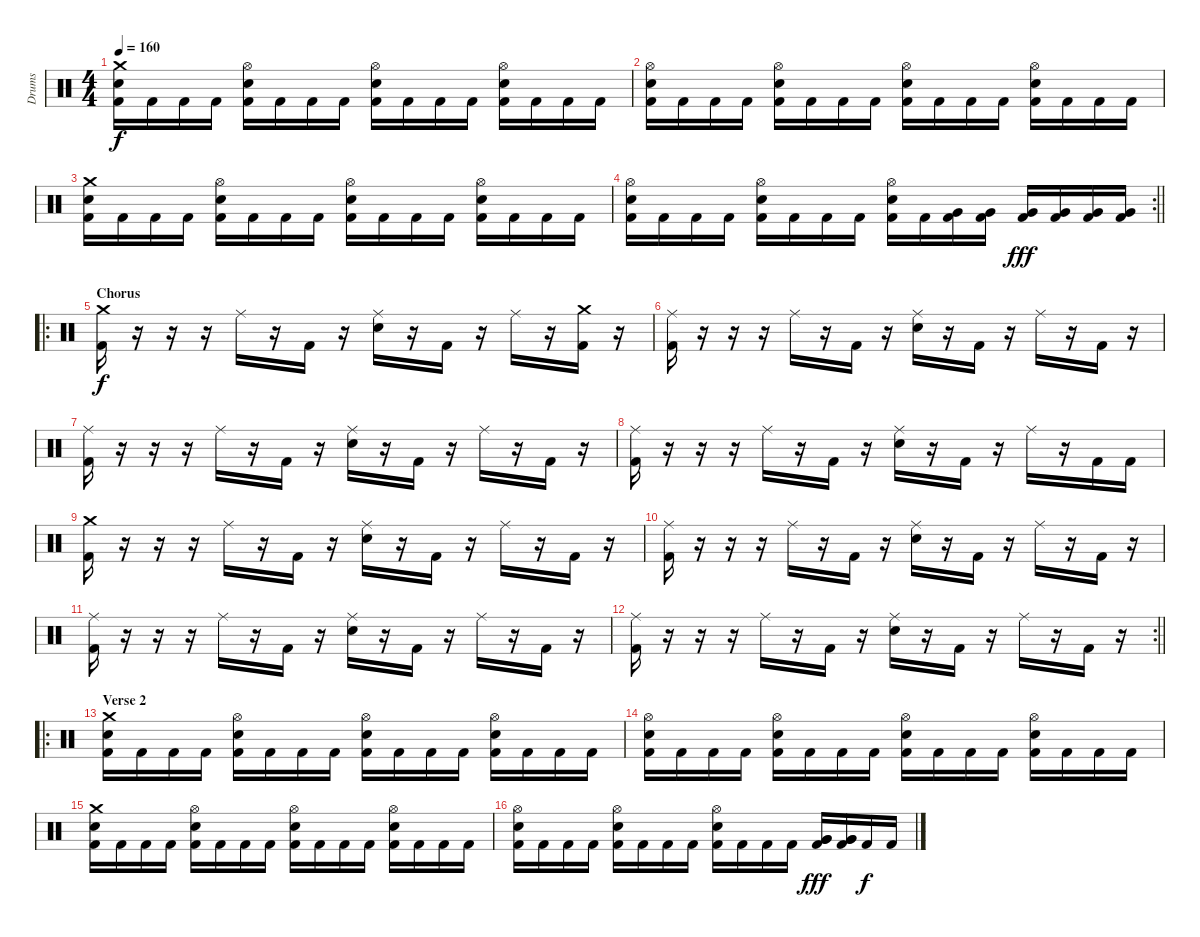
\track ("Drums" "Drums") {instrument percussion}
\staff {score}
\articulation defaults
\ts (4 4)
\tempo 160
\clef neutral
\ks c
("Crash medium (hit)" "Electric Snare (hit)" "Kick (hit) 2").16{dy f} "Kick (hit) 2".16 "Kick (hit) 2".16 "Kick (hit) 2".16 ("Hi-Hat (open)" "Electric Snare (hit)" "Kick (hit) 2").16 "Kick (hit) 2".16 "Kick (hit) 2".16 "Kick (hit) 2".16 ("Hi-Hat (open)" "Electric Snare (hit)" "Kick (hit) 2").16 "Kick (hit) 2".16 "Kick (hit) 2".16 "Kick (hit) 2".16 ("Hi-Hat (open)" "Electric Snare (hit)" "Kick (hit) 2").16 "Kick (hit) 2".16 "Kick (hit) 2".16 "Kick (hit) 2".16 |
("Hi-Hat (open)" "Electric Snare (hit)" "Kick (hit) 2").16 "Kick (hit) 2".16 "Kick (hit) 2".16 "Kick (hit) 2".16 ("Hi-Hat (open)" "Electric Snare (hit)" "Kick (hit) 2").16 "Kick (hit) 2".16 "Kick (hit) 2".16 "Kick (hit) 2".16 ("Hi-Hat (open)" "Electric Snare (hit)" "Kick (hit) 2").16 "Kick (hit) 2".16 "Kick (hit) 2".16 "Kick (hit) 2".16 ("Hi-Hat (open)" "Electric Snare (hit)" "Kick (hit) 2").16 "Kick (hit) 2".16 "Kick (hit) 2".16 "Kick (hit) 2".16 |
("Crash medium (hit)" "Electric Snare (hit)" "Kick (hit) 2").16 "Kick (hit) 2".16 "Kick (hit) 2".16 "Kick (hit) 2".16 ("Hi-Hat (open)" "Electric Snare (hit)" "Kick (hit) 2").16 "Kick (hit) 2".16 "Kick (hit) 2".16 "Kick (hit) 2".16 ("Hi-Hat (open)" "Electric Snare (hit)" "Kick (hit) 2").16 "Kick (hit) 2".16 "Kick (hit) 2".16 "Kick (hit) 2".16 ("Hi-Hat (open)" "Electric Snare (hit)" "Kick (hit) 2").16 "Kick (hit) 2".16 "Kick (hit) 2".16 "Kick (hit) 2".16 |
\rc 2
\barLineRight lightlight
("Hi-Hat (open)" "Electric Snare (hit)" "Kick (hit) 2").16 "Kick (hit) 2".16 "Kick (hit) 2".16 "Kick (hit) 2".16 ("Hi-Hat (open)" "Electric Snare (hit)" "Kick (hit) 2").16 "Kick (hit) 2".16 "Kick (hit) 2".16 "Kick (hit) 2".16 ("Hi-Hat (open)" "Electric Snare (hit)" "Kick (hit) 2").16 "Kick (hit) 2".16 ("Very Low Tom (hit)" "Kick (hit) 2").16 ("Very Low Tom (hit)" "Kick (hit) 2").16 ("Very Low Tom (hit)" "Kick (hit) 2").16{dy fff} ("Very Low Tom (hit)" "Kick (hit) 2").16 ("Very Low Tom (hit)" "Kick (hit) 2").16 ("Very Low Tom (hit)" "Kick (hit) 2").16 |
\ro
\section ("" "Chorus")
("Crash medium (hit)" "Kick (hit) 2").16{dy f} r.16 r.16 r.16 "Ride (middle)".16 r.16 "Kick (hit) 2".16 r.16 ("Ride (middle)" "Electric Snare (hit)").16 r.16 "Kick (hit) 2".16 r.16 "Ride (middle)".16 r.16 ("Crash medium (hit)" "Kick (hit) 2").16 r.16 |
("Ride (middle)" "Kick (hit) 2").16 r.16 r.16 r.16 "Ride (middle)".16 r.16 "Kick (hit) 2".16 r.16 ("Ride (middle)" "Electric Snare (hit)").16 r.16 "Kick (hit) 2".16 r.16 "Ride (middle)".16 r.16 "Kick (hit) 2".16 r.16 |
("Ride (middle)" "Kick (hit) 2").16 r.16 r.16 r.16 "Ride (middle)".16 r.16 "Kick (hit) 2".16 r.16 ("Ride (middle)" "Electric Snare (hit)").16 r.16 "Kick (hit) 2".16 r.16 "Ride (middle)".16 r.16 "Kick (hit) 2".16 r.16 |
("Ride (middle)" "Kick (hit) 2").16 r.16 r.16 r.16 "Ride (middle)".16 r.16 "Kick (hit) 2".16 r.16 ("Ride (middle)" "Electric Snare (hit)").16 r.16 "Kick (hit) 2".16 r.16 "Ride (middle)".16 r.16 "Kick (hit) 2".16 "Kick (hit) 2".16 |
("Crash medium (hit)" "Kick (hit) 2").16 r.16 r.16 r.16 "Ride (middle)".16 r.16 "Kick (hit) 2".16 r.16 ("Ride (middle)" "Electric Snare (hit)").16 r.16 "Kick (hit) 2".16 r.16 "Ride (middle)".16 r.16 "Kick (hit) 2".16 r.16 |
("Ride (middle)" "Kick (hit) 2").16 r.16 r.16 r.16 "Ride (middle)".16 r.16 "Kick (hit) 2".16 r.16 ("Ride (middle)" "Electric Snare (hit)").16 r.16 "Kick (hit) 2".16 r.16 "Ride (middle)".16 r.16 "Kick (hit) 2".16 r.16 |
("Ride (middle)" "Kick (hit) 2").16 r.16 r.16 r.16 "Ride (middle)".16 r.16 "Kick (hit) 2".16 r.16 ("Ride (middle)" "Electric Snare (hit)").16 r.16 "Kick (hit) 2".16 r.16 "Ride (middle)".16 r.16 "Kick (hit) 2".16 r.16 |
\rc 2
\barLineRight lightlight
("Ride (middle)" "Kick (hit) 2").16 r.16 r.16 r.16 "Ride (middle)".16 r.16 "Kick (hit) 2".16 r.16 ("Ride (middle)" "Electric Snare (hit)").16 r.16 "Kick (hit) 2".16 r.16 "Ride (middle)".16 r.16 "Kick (hit) 2".16 r.16 |
\ro
\section ("" "Verse 2")
("Crash medium (hit)" "Electric Snare (hit)" "Kick (hit) 2").16 "Kick (hit) 2".16 "Kick (hit) 2".16 "Kick (hit) 2".16 ("Hi-Hat (open)" "Electric Snare (hit)" "Kick (hit) 2").16 "Kick (hit) 2".16 "Kick (hit) 2".16 "Kick (hit) 2".16 ("Hi-Hat (open)" "Electric Snare (hit)" "Kick (hit) 2").16 "Kick (hit) 2".16 "Kick (hit) 2".16 "Kick (hit) 2".16 ("Hi-Hat (open)" "Electric Snare (hit)" "Kick (hit) 2").16 "Kick (hit) 2".16 "Kick (hit) 2".16 "Kick (hit) 2".16 |
("Hi-Hat (open)" "Electric Snare (hit)" "Kick (hit) 2").16 "Kick (hit) 2".16 "Kick (hit) 2".16 "Kick (hit) 2".16 ("Hi-Hat (open)" "Electric Snare (hit)" "Kick (hit) 2").16 "Kick (hit) 2".16 "Kick (hit) 2".16 "Kick (hit) 2".16 ("Hi-Hat (open)" "Electric Snare (hit)" "Kick (hit) 2").16 "Kick (hit) 2".16 "Kick (hit) 2".16 "Kick (hit) 2".16 ("Hi-Hat (open)" "Electric Snare (hit)" "Kick (hit) 2").16 "Kick (hit) 2".16 "Kick (hit) 2".16 "Kick (hit) 2".16 |
("Crash medium (hit)" "Electric Snare (hit)" "Kick (hit) 2").16 "Kick (hit) 2".16 "Kick (hit) 2".16 "Kick (hit) 2".16 ("Hi-Hat (open)" "Electric Snare (hit)" "Kick (hit) 2").16 "Kick (hit) 2".16 "Kick (hit) 2".16 "Kick (hit) 2".16 ("Hi-Hat (open)" "Electric Snare (hit)" "Kick (hit) 2").16 "Kick (hit) 2".16 "Kick (hit) 2".16 "Kick (hit) 2".16 ("Hi-Hat (open)" "Electric Snare (hit)" "Kick (hit) 2").16 "Kick (hit) 2".16 "Kick (hit) 2".16 "Kick (hit) 2".16 |
("Hi-Hat (open)" "Electric Snare (hit)" "Kick (hit) 2").16 "Kick (hit) 2".16 "Kick (hit) 2".16 "Kick (hit) 2".16 ("Hi-Hat (open)" "Electric Snare (hit)" "Kick (hit) 2").16 "Kick (hit) 2".16 "Kick (hit) 2".16 "Kick (hit) 2".16 ("Hi-Hat (open)" "Electric Snare (hit)" "Kick (hit) 2").16 "Kick (hit) 2".16 "Kick (hit) 2".16 "Kick (hit) 2".16 ("Very Low Tom (hit)" "Very Low Tom (hit)" "Kick (hit) 2").16{dy fff} ("Very Low Tom (hit)" "Very Low Tom (hit)" "Kick (hit) 2").16 "Kick (hit) 2".16{dy f} "Kick (hit) 2".16
